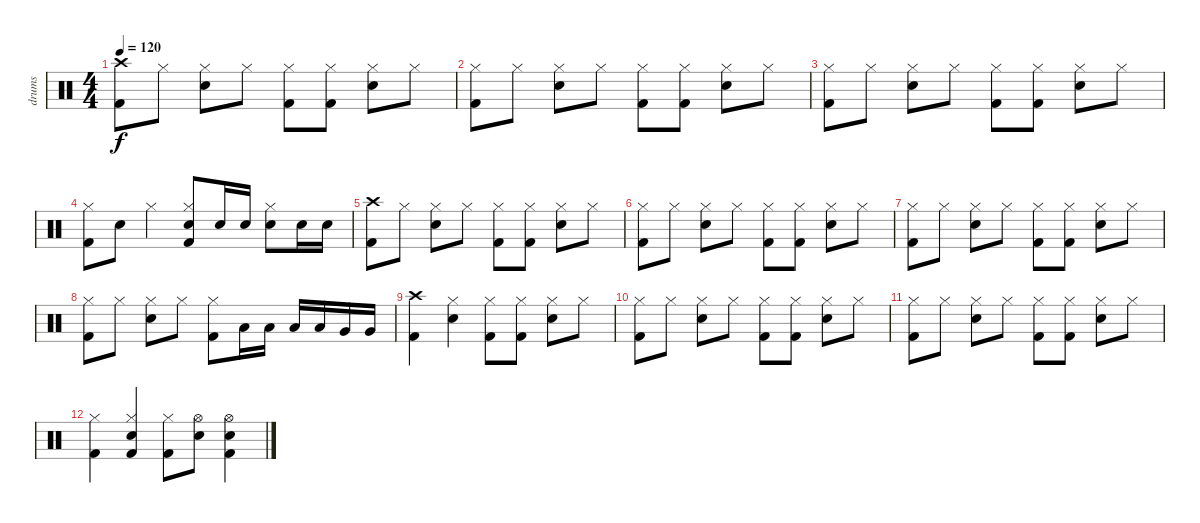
\track ("drums" "drums") {instrument percussion}
\staff {score}
\articulation defaults
\ts (4 4)
\tempo 120
\clef neutral
\ks c
("Crash high (hit)" "Kick (hit) 2").8{dy f} "Hi-Hat (closed)".8 ("Hi-Hat (closed)" "Electric Snare (hit)").8 "Hi-Hat (closed)".8 ("Hi-Hat (closed)" "Kick (hit) 2").8 ("Hi-Hat (closed)" "Kick (hit) 2").8 ("Hi-Hat (closed)" "Electric Snare (hit)").8 "Hi-Hat (closed)".8 |
("Hi-Hat (closed)" "Kick (hit) 2").8 "Hi-Hat (closed)".8 ("Hi-Hat (closed)" "Electric Snare (hit)").8 "Hi-Hat (closed)".8 ("Hi-Hat (closed)" "Kick (hit) 2").8 ("Hi-Hat (closed)" "Kick (hit) 2").8 ("Hi-Hat (closed)" "Electric Snare (hit)").8 "Hi-Hat (closed)".8 |
("Hi-Hat (closed)" "Kick (hit) 2").8 "Hi-Hat (closed)".8 ("Hi-Hat (closed)" "Electric Snare (hit)").8 "Hi-Hat (closed)".8 ("Hi-Hat (closed)" "Kick (hit) 2").8 ("Hi-Hat (closed)" "Kick (hit) 2").8 ("Hi-Hat (closed)" "Electric Snare (hit)").8 "Hi-Hat (closed)".8 |
("Hi-Hat (closed)" "Kick (hit) 2").8 "Electric Snare (hit)".8 "Hi-Hat (closed)".4 ("Hi-Hat (closed)" "Electric Snare (hit)" "Kick (hit) 2").8 "Electric Snare (hit)".16 "Electric Snare (hit)".16 ("Hi-Hat (closed)" "Electric Snare (hit)").8 "Electric Snare (hit)".16 "Electric Snare (hit)".16 |
("Crash high (hit)" "Kick (hit) 2").8 "Hi-Hat (closed)".8 ("Hi-Hat (closed)" "Electric Snare (hit)").8 "Hi-Hat (closed)".8 ("Hi-Hat (closed)" "Kick (hit) 2").8 ("Hi-Hat (closed)" "Kick (hit) 2").8 ("Hi-Hat (closed)" "Electric Snare (hit)").8 "Hi-Hat (closed)".8 |
("Hi-Hat (closed)" "Kick (hit) 2").8 "Hi-Hat (closed)".8 ("Hi-Hat (closed)" "Electric Snare (hit)").8 "Hi-Hat (closed)".8 ("Hi-Hat (closed)" "Kick (hit) 2").8 ("Hi-Hat (closed)" "Kick (hit) 2").8 ("Hi-Hat (closed)" "Electric Snare (hit)").8 "Hi-Hat (closed)".8 |
("Hi-Hat (closed)" "Kick (hit) 2").8 "Hi-Hat (closed)".8 ("Hi-Hat (closed)" "Electric Snare (hit)").8 "Hi-Hat (closed)".8 ("Hi-Hat (closed)" "Kick (hit) 2").8 ("Hi-Hat (closed)" "Kick (hit) 2").8 ("Hi-Hat (closed)" "Electric Snare (hit)").8 "Hi-Hat (closed)".8 |
("Hi-Hat (closed)" "Kick (hit) 2").8 "Hi-Hat (closed)".8 ("Hi-Hat (closed)" "Electric Snare (hit)").8 "Hi-Hat (closed)".8 ("Hi-Hat (closed)" "Kick (hit) 2").8 "Low Tom (hit)".16 "Low Tom (hit)".16 "Low Tom (hit)".16 "Low Tom (hit)".16 "Very Low Tom (hit)".16 "Very Low Tom (hit)".16 |
("Crash high (hit)" "Kick (hit) 2").4 ("Hi-Hat (closed)" "Electric Snare (hit)").4 ("Hi-Hat (closed)" "Kick (hit) 2").8 ("Hi-Hat (closed)" "Kick (hit) 2").8 ("Hi-Hat (closed)" "Electric Snare (hit)").8 "Hi-Hat (closed)".8 |
("Hi-Hat (closed)" "Kick (hit) 2").8 "Hi-Hat (closed)".8 ("Hi-Hat (closed)" "Electric Snare (hit)").8 "Hi-Hat (closed)".8 ("Hi-Hat (closed)" "Kick (hit) 2").8 ("Hi-Hat (closed)" "Kick (hit) 2").8 ("Hi-Hat (closed)" "Electric Snare (hit)").8 "Hi-Hat (closed)".8 |
("Hi-Hat (closed)" "Kick (hit) 2").8 "Hi-Hat (closed)".8 ("Hi-Hat (closed)" "Electric Snare (hit)").8 "Hi-Hat (closed)".8 ("Hi-Hat (closed)" "Kick (hit) 2").8 ("Hi-Hat (closed)" "Kick (hit) 2").8 ("Hi-Hat (closed)" "Electric Snare (hit)").8 "Hi-Hat (closed)".8 |
("Hi-Hat (closed)" "Kick (hit) 2").4 ("Hi-Hat (closed)" "Electric Snare (hit)" "Kick (hit) 2").4 ("Hi-Hat (closed)" "Kick (hit) 2").8 ("Hi-Hat (open)" "Electric Snare (hit)").8 ("Hi-Hat (open)" "Electric Snare (hit)" "Kick (hit) 2").4
